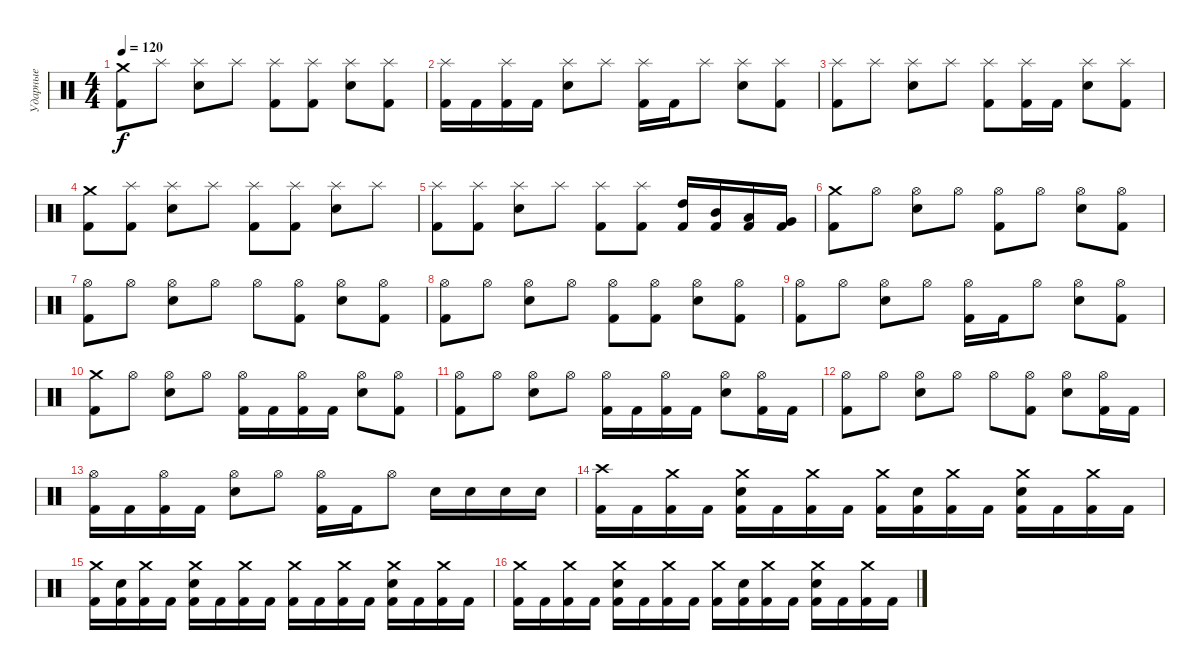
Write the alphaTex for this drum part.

\track ("Ударные" "Ударные") {instrument percussion}
\staff {score}
\articulation defaults
\ts (4 4)
\tempo 120
\clef neutral
\ks c
("Crash medium (hit)" "Kick (hit) 2").8{dy f} "Splash (hit)".8 ("Splash (hit)" "Electric Snare (hit)").8 "Splash (hit)".8 ("Splash (hit)" "Kick (hit) 2").8 ("Splash (hit)" "Kick (hit) 2").8 ("Splash (hit)" "Electric Snare (hit)").8 ("Splash (hit)" "Kick (hit) 2").8 |
("Splash (hit)" "Kick (hit) 2").16 "Kick (hit) 2".16 ("Splash (hit)" "Kick (hit) 2").16 "Kick (hit) 2".16 ("Splash (hit)" "Electric Snare (hit)").8 "Splash (hit)".8 ("Splash (hit)" "Kick (hit) 2").16 "Kick (hit) 2".16 "Splash (hit)".8 ("Splash (hit)" "Electric Snare (hit)").8 ("Splash (hit)" "Kick (hit) 2").8 |
("Splash (hit)" "Kick (hit) 2").8 "Splash (hit)".8 ("Splash (hit)" "Electric Snare (hit)").8 "Splash (hit)".8 ("Splash (hit)" "Kick (hit) 2").8 ("Splash (hit)" "Kick (hit) 2").16 "Kick (hit) 2".16 ("Splash (hit)" "Electric Snare (hit)").8 ("Splash (hit)" "Kick (hit) 2").8 |
("Crash medium (hit)" "Kick (hit) 2").8 ("Splash (hit)" "Kick (hit) 2").8 ("Splash (hit)" "Electric Snare (hit)").8 "Splash (hit)".8 ("Splash (hit)" "Kick (hit) 2").8 ("Splash (hit)" "Kick (hit) 2").8 ("Splash (hit)" "Electric Snare (hit)").8 "Splash (hit)".8 |
("Splash (hit)" "Kick (hit) 2").8 ("Splash (hit)" "Kick (hit) 2").8 ("Splash (hit)" "Electric Snare (hit)").8 "Splash (hit)".8 ("Splash (hit)" "Kick (hit) 2").8 ("Splash (hit)" "Kick (hit) 2").8 ("High Tom (hit)" "Kick (hit) 2").16 ("Mid Tom (hit)" "Kick (hit) 2").16 ("Low Tom (hit)" "Kick (hit) 2").16 ("Very Low Tom (hit)" "Kick (hit) 2").16 |
("Crash medium (hit)" "Kick (hit) 2").8 "Hi-Hat (open)".8 ("Hi-Hat (open)" "Electric Snare (hit)").8 "Hi-Hat (open)".8 ("Hi-Hat (open)" "Kick (hit) 2").8 "Hi-Hat (open)".8 ("Hi-Hat (open)" "Electric Snare (hit)").8 ("Hi-Hat (open)" "Kick (hit) 2").8 |
("Hi-Hat (open)" "Kick (hit) 2").8 "Hi-Hat (open)".8 ("Hi-Hat (open)" "Electric Snare (hit)").8 "Hi-Hat (open)".8 "Hi-Hat (open)".8 ("Hi-Hat (open)" "Kick (hit) 2").8 ("Hi-Hat (open)" "Electric Snare (hit)").8 ("Hi-Hat (open)" "Kick (hit) 2").8 |
("Hi-Hat (open)" "Kick (hit) 2").8 "Hi-Hat (open)".8 ("Hi-Hat (open)" "Electric Snare (hit)").8 "Hi-Hat (open)".8 ("Hi-Hat (open)" "Kick (hit) 2").8 ("Hi-Hat (open)" "Kick (hit) 2").8 ("Hi-Hat (open)" "Electric Snare (hit)").8 ("Hi-Hat (open)" "Kick (hit) 2").8 |
("Hi-Hat (open)" "Kick (hit) 2").8 "Hi-Hat (open)".8 ("Hi-Hat (open)" "Electric Snare (hit)").8 "Hi-Hat (open)".8 ("Hi-Hat (open)" "Kick (hit) 2").16 "Kick (hit) 2".16 "Hi-Hat (open)".8 ("Hi-Hat (open)" "Electric Snare (hit)").8 ("Hi-Hat (open)" "Kick (hit) 2").8 |
("Crash medium (hit)" "Kick (hit) 2").8 "Hi-Hat (open)".8 ("Hi-Hat (open)" "Electric Snare (hit)").8 "Hi-Hat (open)".8 ("Hi-Hat (open)" "Kick (hit) 2").16 "Kick (hit) 2".16 ("Hi-Hat (open)" "Kick (hit) 2").16 "Kick (hit) 2".16 ("Hi-Hat (open)" "Electric Snare (hit)").8 ("Hi-Hat (open)" "Kick (hit) 2").8 |
("Hi-Hat (open)" "Kick (hit) 2").8 "Hi-Hat (open)".8 ("Hi-Hat (open)" "Electric Snare (hit)").8 "Hi-Hat (open)".8 ("Hi-Hat (open)" "Kick (hit) 2").16 "Kick (hit) 2".16 ("Hi-Hat (open)" "Kick (hit) 2").16 "Kick (hit) 2".16 ("Hi-Hat (open)" "Electric Snare (hit)").8 ("Hi-Hat (open)" "Kick (hit) 2").16 "Kick (hit) 2".16 |
("Hi-Hat (open)" "Kick (hit) 2").8 "Hi-Hat (open)".8 ("Hi-Hat (open)" "Electric Snare (hit)").8 "Hi-Hat (open)".8 "Hi-Hat (open)".8 ("Hi-Hat (open)" "Kick (hit) 2").8 ("Hi-Hat (open)" "Electric Snare (hit)").8 ("Hi-Hat (open)" "Kick (hit) 2").16 "Kick (hit) 2".16 |
("Hi-Hat (open)" "Kick (hit) 2").16 "Kick (hit) 2".16 ("Hi-Hat (open)" "Kick (hit) 2").16 "Kick (hit) 2".16 ("Hi-Hat (open)" "Electric Snare (hit)").8 "Hi-Hat (open)".8 ("Hi-Hat (open)" "Kick (hit) 2").16 "Kick (hit) 2".16 "Hi-Hat (open)".8 "Electric Snare (hit)".16 "Electric Snare (hit)".16 "Electric Snare (hit)".16 "Electric Snare (hit)".16 |
("Crash high (hit)" "Kick (hit) 2").16 "Kick (hit) 2".16 ("Crash medium (hit)" "Kick (hit) 2").16 "Kick (hit) 2".16 ("Crash medium (hit)" "Electric Snare (hit)" "Kick (hit) 2").16 "Kick (hit) 2".16 ("Crash medium (hit)" "Kick (hit) 2").16 "Kick (hit) 2".16 ("Crash medium (hit)" "Kick (hit) 2").16 ("Electric Snare (hit)" "Kick (hit) 2").16 ("Crash medium (hit)" "Kick (hit) 2").16 "Kick (hit) 2".16 ("Crash medium (hit)" "Electric Snare (hit)" "Kick (hit) 2").16 "Kick (hit) 2".16 ("Crash medium (hit)" "Kick (hit) 2").16 "Kick (hit) 2".16 |
("Crash medium (hit)" "Kick (hit) 2").16 ("Electric Snare (hit)" "Kick (hit) 2").16 ("Crash medium (hit)" "Kick (hit) 2").16 "Kick (hit) 2".16 ("Crash medium (hit)" "Electric Snare (hit)" "Kick (hit) 2").16 "Kick (hit) 2".16 ("Crash medium (hit)" "Kick (hit) 2").16 "Kick (hit) 2".16 ("Crash medium (hit)" "Kick (hit) 2").16 "Kick (hit) 2".16 ("Crash medium (hit)" "Kick (hit) 2").16 "Kick (hit) 2".16 ("Crash medium (hit)" "Electric Snare (hit)" "Kick (hit) 2").16 "Kick (hit) 2".16 ("Crash medium (hit)" "Kick (hit) 2").16 "Kick (hit) 2".16 |
("Crash medium (hit)" "Kick (hit) 2").16 "Kick (hit) 2".16 ("Crash medium (hit)" "Kick (hit) 2").16 "Kick (hit) 2".16 ("Crash medium (hit)" "Electric Snare (hit)" "Kick (hit) 2").16 "Kick (hit) 2".16 ("Crash medium (hit)" "Kick (hit) 2").16 "Kick (hit) 2".16 ("Crash medium (hit)" "Kick (hit) 2").16 ("Electric Snare (hit)" "Kick (hit) 2").16 ("Crash medium (hit)" "Kick (hit) 2").16 "Kick (hit) 2".16 ("Crash medium (hit)" "Electric Snare (hit)" "Kick (hit) 2").16 "Kick (hit) 2".16 ("Crash medium (hit)" "Kick (hit) 2").16 "Kick (hit) 2".16
